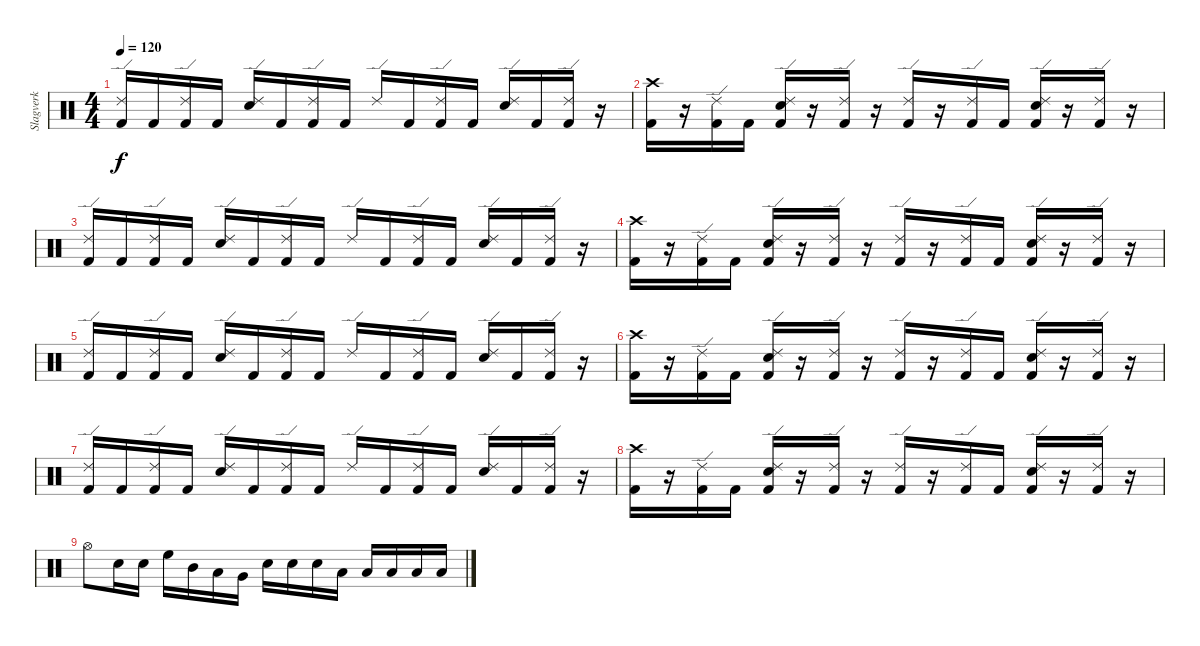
\track ("Slagverk" "Slagverk") {instrument percussion}
\staff {score}
\articulation defaults
\ts (4 4)
\tempo 120
\clef neutral
\ks c
("Kick (hit) 2" "Ride (edge) 2").16{dy f} "Kick (hit) 2".16 ("Kick (hit) 2" "Ride (edge) 2").16 "Kick (hit) 2".16 ("Electric Snare (hit)" "Ride (edge) 2").16 "Kick (hit) 2".16 ("Kick (hit) 2" "Ride (edge) 2").16 "Kick (hit) 2".16 "Ride (edge) 2".16 "Kick (hit) 2".16 ("Kick (hit) 2" "Ride (edge) 2").16 "Kick (hit) 2".16 ("Electric Snare (hit)" "Ride (edge) 2").16 "Kick (hit) 2".16 ("Kick (hit) 2" "Ride (edge) 2").16 r.16 |
("Kick (hit) 2" "Crash high (hit)").16 r.16 ("Kick (hit) 2" "Ride (edge) 2").16 "Kick (hit) 2".16 ("Kick (hit) 2" "Electric Snare (hit)" "Ride (edge) 2").16 r.16 ("Kick (hit) 2" "Ride (edge) 2").16 r.16 ("Kick (hit) 2" "Ride (edge) 2").16 r.16 ("Kick (hit) 2" "Ride (edge) 2").16 "Kick (hit) 2".16 ("Kick (hit) 2" "Electric Snare (hit)" "Ride (edge) 2").16 r.16 ("Kick (hit) 2" "Ride (edge) 2").16 r.16 |
("Kick (hit) 2" "Ride (edge) 2").16 "Kick (hit) 2".16 ("Kick (hit) 2" "Ride (edge) 2").16 "Kick (hit) 2".16 ("Electric Snare (hit)" "Ride (edge) 2").16 "Kick (hit) 2".16 ("Kick (hit) 2" "Ride (edge) 2").16 "Kick (hit) 2".16 "Ride (edge) 2".16 "Kick (hit) 2".16 ("Kick (hit) 2" "Ride (edge) 2").16 "Kick (hit) 2".16 ("Electric Snare (hit)" "Ride (edge) 2").16 "Kick (hit) 2".16 ("Kick (hit) 2" "Ride (edge) 2").16 r.16 |
("Kick (hit) 2" "Crash high (hit)").16 r.16 ("Kick (hit) 2" "Ride (edge) 2").16 "Kick (hit) 2".16 ("Kick (hit) 2" "Electric Snare (hit)" "Ride (edge) 2").16 r.16 ("Kick (hit) 2" "Ride (edge) 2").16 r.16 ("Kick (hit) 2" "Ride (edge) 2").16 r.16 ("Kick (hit) 2" "Ride (edge) 2").16 "Kick (hit) 2".16 ("Kick (hit) 2" "Electric Snare (hit)" "Ride (edge) 2").16 r.16 ("Kick (hit) 2" "Ride (edge) 2").16 r.16 |
("Kick (hit) 2" "Ride (edge) 2").16 "Kick (hit) 2".16 ("Kick (hit) 2" "Ride (edge) 2").16 "Kick (hit) 2".16 ("Electric Snare (hit)" "Ride (edge) 2").16 "Kick (hit) 2".16 ("Kick (hit) 2" "Ride (edge) 2").16 "Kick (hit) 2".16 "Ride (edge) 2".16 "Kick (hit) 2".16 ("Kick (hit) 2" "Ride (edge) 2").16 "Kick (hit) 2".16 ("Electric Snare (hit)" "Ride (edge) 2").16 "Kick (hit) 2".16 ("Kick (hit) 2" "Ride (edge) 2").16 r.16 |
("Kick (hit) 2" "Crash high (hit)").16 r.16 ("Kick (hit) 2" "Ride (edge) 2").16 "Kick (hit) 2".16 ("Kick (hit) 2" "Electric Snare (hit)" "Ride (edge) 2").16 r.16 ("Kick (hit) 2" "Ride (edge) 2").16 r.16 ("Kick (hit) 2" "Ride (edge) 2").16 r.16 ("Kick (hit) 2" "Ride (edge) 2").16 "Kick (hit) 2".16 ("Kick (hit) 2" "Electric Snare (hit)" "Ride (edge) 2").16 r.16 ("Kick (hit) 2" "Ride (edge) 2").16 r.16 |
("Kick (hit) 2" "Ride (edge) 2").16 "Kick (hit) 2".16 ("Kick (hit) 2" "Ride (edge) 2").16 "Kick (hit) 2".16 ("Electric Snare (hit)" "Ride (edge) 2").16 "Kick (hit) 2".16 ("Kick (hit) 2" "Ride (edge) 2").16 "Kick (hit) 2".16 "Ride (edge) 2".16 "Kick (hit) 2".16 ("Kick (hit) 2" "Ride (edge) 2").16 "Kick (hit) 2".16 ("Electric Snare (hit)" "Ride (edge) 2").16 "Kick (hit) 2".16 ("Kick (hit) 2" "Ride (edge) 2").16 r.16 |
("Kick (hit) 2" "Crash high (hit)").16 r.16 ("Kick (hit) 2" "Ride (edge) 2").16 "Kick (hit) 2".16 ("Kick (hit) 2" "Electric Snare (hit)" "Ride (edge) 2").16 r.16 ("Kick (hit) 2" "Ride (edge) 2").16 r.16 ("Kick (hit) 2" "Ride (edge) 2").16 r.16 ("Kick (hit) 2" "Ride (edge) 2").16 "Kick (hit) 2".16 ("Kick (hit) 2" "Electric Snare (hit)" "Ride (edge) 2").16 r.16 ("Kick (hit) 2" "Ride (edge) 2").16 r.16 |
"Hi-Hat (open)".8 "Electric Snare (hit)".16 "Electric Snare (hit)".16 "High Floor Tom (hit)".16 "Mid Tom (hit)".16 "Low Tom (hit)".16 "Very Low Tom (hit)".16 "Electric Snare (hit)".16 "Electric Snare (hit)".16 "Electric Snare (hit)".16 "Low Tom (hit)".16 "Low Floor Tom (hit)".16 "Low Floor Tom (hit)".16 "Low Floor Tom (hit)".16 "Low Floor Tom (hit)".16
